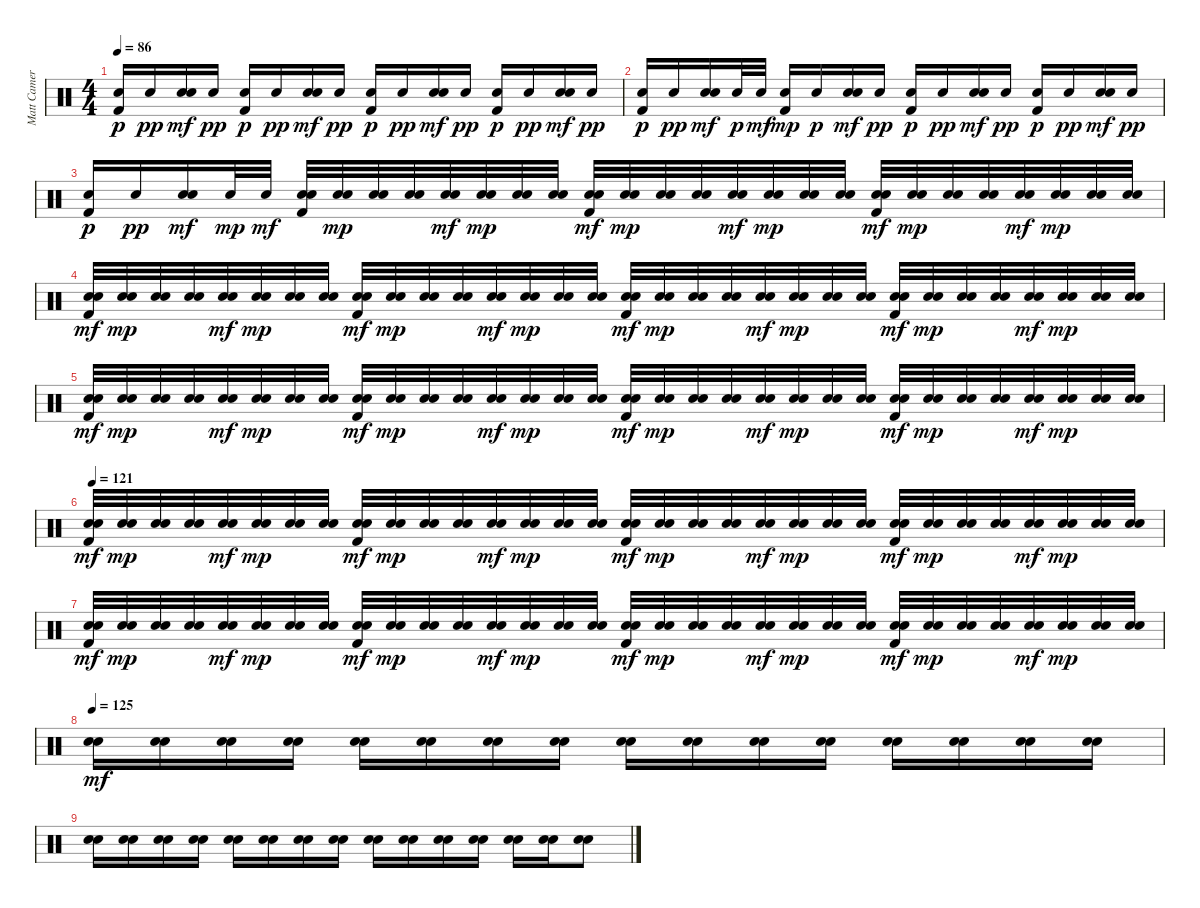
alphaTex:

\track ("Matt Cameron" "Matt Camer") {instrument percussion}
\staff
\articulation defaults
\ts (4 4)
\tempo 86
\clef neutral
\ks c
("Kick (hit) 2" "Snare (hit) 2").16{dy p} "Snare (hit) 2".16{dy pp} ("Electric Snare (hit)" "Snare (hit) 2").16{dy mf} "Snare (hit) 2".16{dy pp} ("Kick (hit) 2" "Snare (hit) 2").16{dy p} "Snare (hit) 2".16{dy pp} ("Electric Snare (hit)" "Snare (hit) 2").16{dy mf} "Snare (hit) 2".16{dy pp} ("Kick (hit) 2" "Snare (hit) 2").16{dy p} "Snare (hit) 2".16{dy pp} ("Electric Snare (hit)" "Snare (hit) 2").16{dy mf} "Snare (hit) 2".16{dy pp} ("Kick (hit) 2" "Snare (hit) 2").16{dy p} "Snare (hit) 2".16{dy pp} ("Electric Snare (hit)" "Snare (hit) 2").16{dy mf} "Snare (hit) 2".16{dy pp} |
("Kick (hit) 2" "Snare (hit) 2").16{dy p} "Snare (hit) 2".16{dy pp} ("Electric Snare (hit)" "Snare (hit) 2").16{dy mf} "Snare (hit) 2".32{dy p} "Snare (hit) 2".32{dy mf} ("Kick (hit) 2" "Snare (hit) 2").16{dy mp} "Snare (hit) 2".16{dy p} ("Electric Snare (hit)" "Snare (hit) 2").16{dy mf} "Snare (hit) 2".16{dy pp} ("Kick (hit) 2" "Snare (hit) 2").16{dy p} "Snare (hit) 2".16{dy pp} ("Electric Snare (hit)" "Snare (hit) 2").16{dy mf} "Snare (hit) 2".16{dy pp} ("Kick (hit) 2" "Snare (hit) 2").16{dy p} "Snare (hit) 2".16{dy pp} ("Electric Snare (hit)" "Snare (hit) 2").16{dy mf} "Snare (hit) 2".16{dy pp} |
("Kick (hit) 2" "Snare (hit) 2").16{dy p} "Snare (hit) 2".16{dy pp} ("Electric Snare (hit)" "Snare (hit) 2").16{dy mf} "Snare (hit) 2".32{dy mp} "Snare (hit) 2".32{dy mf} ("Kick (hit) 2" "Snare (hit) 2" "Electric Snare (hit)").32 ("Electric Snare (hit)" "Snare (hit) 2").32{dy mp} ("Electric Snare (hit)" "Snare (hit) 2").32 ("Electric Snare (hit)" "Snare (hit) 2").32 ("Snare (hit) 2" "Electric Snare (hit)").32{dy mf} ("Electric Snare (hit)" "Snare (hit) 2").32{dy mp} ("Electric Snare (hit)" "Snare (hit) 2").32 ("Electric Snare (hit)" "Snare (hit) 2").32 ("Kick (hit) 2" "Snare (hit) 2" "Electric Snare (hit)").32{dy mf} ("Electric Snare (hit)" "Snare (hit) 2").32{dy mp} ("Electric Snare (hit)" "Snare (hit) 2").32 ("Electric Snare (hit)" "Snare (hit) 2").32 ("Snare (hit) 2" "Electric Snare (hit)").32{dy mf} ("Electric Snare (hit)" "Snare (hit) 2").32{dy mp} ("Electric Snare (hit)" "Snare (hit) 2").32 ("Electric Snare (hit)" "Snare (hit) 2").32 ("Kick (hit) 2" "Snare (hit) 2" "Electric Snare (hit)").32{dy mf} ("Electric Snare (hit)" "Snare (hit) 2").32{dy mp} ("Electric Snare (hit)" "Snare (hit) 2").32 ("Electric Snare (hit)" "Snare (hit) 2").32 ("Snare (hit) 2" "Electric Snare (hit)").32{dy mf} ("Electric Snare (hit)" "Snare (hit) 2").32{dy mp} ("Electric Snare (hit)" "Snare (hit) 2").32 ("Electric Snare (hit)" "Snare (hit) 2").32 |
("Kick (hit) 2" "Snare (hit) 2" "Electric Snare (hit)").32{dy mf} ("Electric Snare (hit)" "Snare (hit) 2").32{dy mp} ("Electric Snare (hit)" "Snare (hit) 2").32 ("Electric Snare (hit)" "Snare (hit) 2").32 ("Snare (hit) 2" "Electric Snare (hit)").32{dy mf} ("Electric Snare (hit)" "Snare (hit) 2").32{dy mp} ("Electric Snare (hit)" "Snare (hit) 2").32 ("Electric Snare (hit)" "Snare (hit) 2").32 ("Kick (hit) 2" "Snare (hit) 2" "Electric Snare (hit)").32{dy mf} ("Electric Snare (hit)" "Snare (hit) 2").32{dy mp} ("Electric Snare (hit)" "Snare (hit) 2").32 ("Electric Snare (hit)" "Snare (hit) 2").32 ("Snare (hit) 2" "Electric Snare (hit)").32{dy mf} ("Electric Snare (hit)" "Snare (hit) 2").32{dy mp} ("Electric Snare (hit)" "Snare (hit) 2").32 ("Electric Snare (hit)" "Snare (hit) 2").32 ("Kick (hit) 2" "Snare (hit) 2" "Electric Snare (hit)").32{dy mf} ("Electric Snare (hit)" "Snare (hit) 2").32{dy mp} ("Electric Snare (hit)" "Snare (hit) 2").32 ("Electric Snare (hit)" "Snare (hit) 2").32 ("Snare (hit) 2" "Electric Snare (hit)").32{dy mf} ("Electric Snare (hit)" "Snare (hit) 2").32{dy mp} ("Electric Snare (hit)" "Snare (hit) 2").32 ("Electric Snare (hit)" "Snare (hit) 2").32 ("Kick (hit) 2" "Snare (hit) 2" "Electric Snare (hit)").32{dy mf} ("Electric Snare (hit)" "Snare (hit) 2").32{dy mp} ("Electric Snare (hit)" "Snare (hit) 2").32 ("Electric Snare (hit)" "Snare (hit) 2").32 ("Snare (hit) 2" "Electric Snare (hit)").32{dy mf} ("Electric Snare (hit)" "Snare (hit) 2").32{dy mp} ("Electric Snare (hit)" "Snare (hit) 2").32 ("Electric Snare (hit)" "Snare (hit) 2").32 |
("Kick (hit) 2" "Snare (hit) 2" "Electric Snare (hit)").32{dy mf} ("Electric Snare (hit)" "Snare (hit) 2").32{dy mp} ("Electric Snare (hit)" "Snare (hit) 2").32 ("Electric Snare (hit)" "Snare (hit) 2").32 ("Snare (hit) 2" "Electric Snare (hit)").32{dy mf} ("Electric Snare (hit)" "Snare (hit) 2").32{dy mp} ("Electric Snare (hit)" "Snare (hit) 2").32 ("Electric Snare (hit)" "Snare (hit) 2").32 ("Kick (hit) 2" "Snare (hit) 2" "Electric Snare (hit)").32{dy mf} ("Electric Snare (hit)" "Snare (hit) 2").32{dy mp} ("Electric Snare (hit)" "Snare (hit) 2").32 ("Electric Snare (hit)" "Snare (hit) 2").32 ("Snare (hit) 2" "Electric Snare (hit)").32{dy mf} ("Electric Snare (hit)" "Snare (hit) 2").32{dy mp} ("Electric Snare (hit)" "Snare (hit) 2").32 ("Electric Snare (hit)" "Snare (hit) 2").32 ("Kick (hit) 2" "Snare (hit) 2" "Electric Snare (hit)").32{dy mf} ("Electric Snare (hit)" "Snare (hit) 2").32{dy mp} ("Electric Snare (hit)" "Snare (hit) 2").32 ("Electric Snare (hit)" "Snare (hit) 2").32 ("Snare (hit) 2" "Electric Snare (hit)").32{dy mf} ("Electric Snare (hit)" "Snare (hit) 2").32{dy mp} ("Electric Snare (hit)" "Snare (hit) 2").32 ("Electric Snare (hit)" "Snare (hit) 2").32 ("Kick (hit) 2" "Snare (hit) 2" "Electric Snare (hit)").32{dy mf} ("Electric Snare (hit)" "Snare (hit) 2").32{dy mp} ("Electric Snare (hit)" "Snare (hit) 2").32 ("Electric Snare (hit)" "Snare (hit) 2").32 ("Snare (hit) 2" "Electric Snare (hit)").32{dy mf} ("Electric Snare (hit)" "Snare (hit) 2").32{dy mp} ("Electric Snare (hit)" "Snare (hit) 2").32 ("Electric Snare (hit)" "Snare (hit) 2").32 |
\tempo 121
("Kick (hit) 2" "Snare (hit) 2" "Electric Snare (hit)").32{dy mf} ("Electric Snare (hit)" "Snare (hit) 2").32{dy mp} ("Electric Snare (hit)" "Snare (hit) 2").32 ("Electric Snare (hit)" "Snare (hit) 2").32 ("Snare (hit) 2" "Electric Snare (hit)").32{dy mf} ("Electric Snare (hit)" "Snare (hit) 2").32{dy mp} ("Electric Snare (hit)" "Snare (hit) 2").32 ("Electric Snare (hit)" "Snare (hit) 2").32 ("Kick (hit) 2" "Snare (hit) 2" "Electric Snare (hit)").32{dy mf} ("Electric Snare (hit)" "Snare (hit) 2").32{dy mp} ("Electric Snare (hit)" "Snare (hit) 2").32 ("Electric Snare (hit)" "Snare (hit) 2").32 ("Snare (hit) 2" "Electric Snare (hit)").32{dy mf} ("Electric Snare (hit)" "Snare (hit) 2").32{dy mp} ("Electric Snare (hit)" "Snare (hit) 2").32 ("Electric Snare (hit)" "Snare (hit) 2").32 ("Kick (hit) 2" "Snare (hit) 2" "Electric Snare (hit)").32{dy mf} ("Electric Snare (hit)" "Snare (hit) 2").32{dy mp} ("Electric Snare (hit)" "Snare (hit) 2").32 ("Electric Snare (hit)" "Snare (hit) 2").32 ("Snare (hit) 2" "Electric Snare (hit)").32{dy mf} ("Electric Snare (hit)" "Snare (hit) 2").32{dy mp} ("Electric Snare (hit)" "Snare (hit) 2").32 ("Electric Snare (hit)" "Snare (hit) 2").32 ("Kick (hit) 2" "Snare (hit) 2" "Electric Snare (hit)").32{dy mf} ("Electric Snare (hit)" "Snare (hit) 2").32{dy mp} ("Electric Snare (hit)" "Snare (hit) 2").32 ("Electric Snare (hit)" "Snare (hit) 2").32 ("Snare (hit) 2" "Electric Snare (hit)").32{dy mf} ("Electric Snare (hit)" "Snare (hit) 2").32{dy mp} ("Electric Snare (hit)" "Snare (hit) 2").32 ("Electric Snare (hit)" "Snare (hit) 2").32 |
("Kick (hit) 2" "Snare (hit) 2" "Electric Snare (hit)").32{dy mf} ("Electric Snare (hit)" "Snare (hit) 2").32{dy mp} ("Electric Snare (hit)" "Snare (hit) 2").32 ("Electric Snare (hit)" "Snare (hit) 2").32 ("Snare (hit) 2" "Electric Snare (hit)").32{dy mf} ("Electric Snare (hit)" "Snare (hit) 2").32{dy mp} ("Electric Snare (hit)" "Snare (hit) 2").32 ("Electric Snare (hit)" "Snare (hit) 2").32 ("Kick (hit) 2" "Snare (hit) 2" "Electric Snare (hit)").32{dy mf} ("Electric Snare (hit)" "Snare (hit) 2").32{dy mp} ("Electric Snare (hit)" "Snare (hit) 2").32 ("Electric Snare (hit)" "Snare (hit) 2").32 ("Snare (hit) 2" "Electric Snare (hit)").32{dy mf volume 8} ("Electric Snare (hit)" "Snare (hit) 2").32{dy mp} ("Electric Snare (hit)" "Snare (hit) 2").32 ("Electric Snare (hit)" "Snare (hit) 2").32 ("Kick (hit) 2" "Snare (hit) 2" "Electric Snare (hit)").32{dy mf} ("Electric Snare (hit)" "Snare (hit) 2").32{dy mp} ("Electric Snare (hit)" "Snare (hit) 2").32 ("Electric Snare (hit)" "Snare (hit) 2").32 ("Snare (hit) 2" "Electric Snare (hit)").32{dy mf} ("Electric Snare (hit)" "Snare (hit) 2").32{dy mp} ("Electric Snare (hit)" "Snare (hit) 2").32 ("Electric Snare (hit)" "Snare (hit) 2").32 ("Kick (hit) 2" "Snare (hit) 2" "Electric Snare (hit)").32{dy mf} ("Electric Snare (hit)" "Snare (hit) 2").32{dy mp} ("Electric Snare (hit)" "Snare (hit) 2").32 ("Electric Snare (hit)" "Snare (hit) 2").32 ("Snare (hit) 2" "Electric Snare (hit)").32{dy mf} ("Electric Snare (hit)" "Snare (hit) 2").32{dy mp} ("Electric Snare (hit)" "Snare (hit) 2").32 ("Electric Snare (hit)" "Snare (hit) 2").32 |
\tempo 125
("Electric Snare (hit)" "Snare (hit) 2").16{dy mf volume 12} ("Electric Snare (hit)" "Snare (hit) 2").16 ("Electric Snare (hit)" "Snare (hit) 2").16 ("Electric Snare (hit)" "Snare (hit) 2").16 ("Electric Snare (hit)" "Snare (hit) 2").16 ("Electric Snare (hit)" "Snare (hit) 2").16 ("Electric Snare (hit)" "Snare (hit) 2").16 ("Electric Snare (hit)" "Snare (hit) 2").16 ("Electric Snare (hit)" "Snare (hit) 2").16 ("Electric Snare (hit)" "Snare (hit) 2").16 ("Electric Snare (hit)" "Snare (hit) 2").16 ("Electric Snare (hit)" "Snare (hit) 2").16 ("Electric Snare (hit)" "Snare (hit) 2").16 ("Electric Snare (hit)" "Snare (hit) 2").16 ("Electric Snare (hit)" "Snare (hit) 2").16 ("Electric Snare (hit)" "Snare (hit) 2").16 |
("Electric Snare (hit)" "Snare (hit) 2").16 ("Electric Snare (hit)" "Snare (hit) 2").16 ("Electric Snare (hit)" "Snare (hit) 2").16 ("Electric Snare (hit)" "Snare (hit) 2").16 ("Electric Snare (hit)" "Snare (hit) 2").16 ("Electric Snare (hit)" "Snare (hit) 2").16 ("Electric Snare (hit)" "Snare (hit) 2").16 ("Electric Snare (hit)" "Snare (hit) 2").16 ("Electric Snare (hit)" "Snare (hit) 2").16 ("Electric Snare (hit)" "Snare (hit) 2").16 ("Electric Snare (hit)" "Snare (hit) 2").16 ("Electric Snare (hit)" "Snare (hit) 2").16 ("Electric Snare (hit)" "Snare (hit) 2").16 ("Electric Snare (hit)" "Snare (hit) 2").16 ("Electric Snare (hit)" "Snare (hit) 2").8
